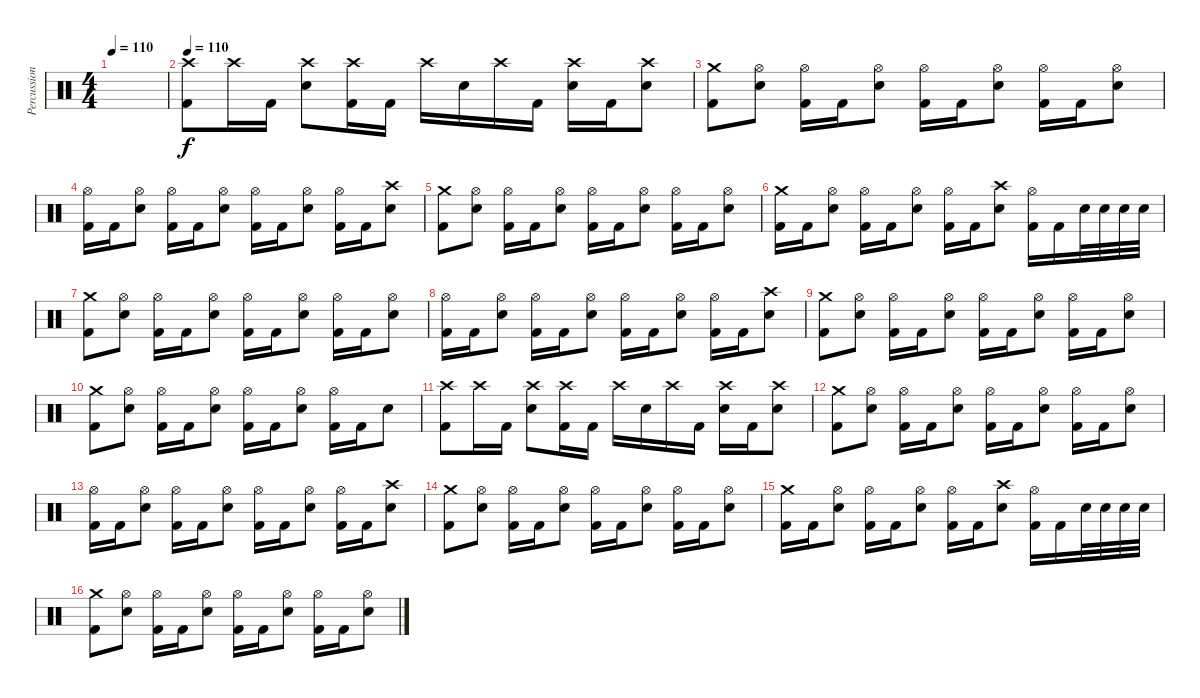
\track ("Percussion" "Percussion") {instrument percussion}
\staff {score}
\articulation defaults
\ts (4 4)
\tempo 110
\tempo 40
\tempo 110
\clef neutral
\ks c
|
\tempo 110
("Crash high (hit)" "Kick (hit) 2").8 "Crash high (hit)".16 "Kick (hit) 2".16 ("Crash high (hit)" "Snare (hit) 2").8 ("Crash high (hit)" "Kick (hit) 2").16 "Kick (hit) 2".16 "Crash high (hit)".16 "Snare (hit) 2".16 "Crash high (hit)".16 "Kick (hit) 2".16 ("Crash high (hit)" "Snare (hit) 2").16 "Kick (hit) 2".16 ("Crash high (hit)" "Snare (hit) 2").8 |
("Crash medium (hit)" "Kick (hit) 2").8 ("Hi-Hat (open)" "Snare (hit) 2").8 ("Hi-Hat (open)" "Kick (hit) 2").16 "Kick (hit) 2".16 ("Hi-Hat (open)" "Snare (hit) 2").8 ("Hi-Hat (open)" "Kick (hit) 2").16 "Kick (hit) 2".16 ("Hi-Hat (open)" "Snare (hit) 2").8 ("Hi-Hat (open)" "Kick (hit) 2").16 "Kick (hit) 2".16 ("Hi-Hat (open)" "Snare (hit) 2").8 |
("Hi-Hat (open)" "Kick (hit) 2").16 "Kick (hit) 2".16 ("Hi-Hat (open)" "Snare (hit) 2").8 ("Hi-Hat (open)" "Kick (hit) 2").16 "Kick (hit) 2".16 ("Hi-Hat (open)" "Snare (hit) 2").8 ("Hi-Hat (open)" "Kick (hit) 2").16 "Kick (hit) 2".16 ("Hi-Hat (open)" "Snare (hit) 2").8 ("Hi-Hat (open)" "Kick (hit) 2").16 "Kick (hit) 2".16 ("Crash high (hit)" "Snare (hit) 2").8 |
("Crash medium (hit)" "Kick (hit) 2").8 ("Hi-Hat (open)" "Snare (hit) 2").8 ("Hi-Hat (open)" "Kick (hit) 2").16 "Kick (hit) 2".16 ("Hi-Hat (open)" "Snare (hit) 2").8 ("Hi-Hat (open)" "Kick (hit) 2").16 "Kick (hit) 2".16 ("Hi-Hat (open)" "Snare (hit) 2").8 ("Hi-Hat (open)" "Kick (hit) 2").16 "Kick (hit) 2".16 ("Hi-Hat (open)" "Snare (hit) 2").8 |
("Crash medium (hit)" "Kick (hit) 2").16 "Kick (hit) 2".16 ("Hi-Hat (open)" "Snare (hit) 2").8 ("Hi-Hat (open)" "Kick (hit) 2").16 "Kick (hit) 2".16 ("Hi-Hat (open)" "Snare (hit) 2").8 ("Hi-Hat (open)" "Kick (hit) 2").16 "Kick (hit) 2".16 ("Crash high (hit)" "Snare (hit) 2").8 ("Hi-Hat (open)" "Kick (hit) 2").16 "Kick (hit) 2".16 "Snare (hit) 2".32 "Snare (hit) 2".32 "Snare (hit) 2".32 "Snare (hit) 2".32 |
("Crash medium (hit)" "Kick (hit) 2").8 ("Hi-Hat (open)" "Snare (hit) 2").8 ("Hi-Hat (open)" "Kick (hit) 2").16 "Kick (hit) 2".16 ("Hi-Hat (open)" "Snare (hit) 2").8 ("Hi-Hat (open)" "Kick (hit) 2").16 "Kick (hit) 2".16 ("Hi-Hat (open)" "Snare (hit) 2").8 ("Hi-Hat (open)" "Kick (hit) 2").16 "Kick (hit) 2".16 ("Hi-Hat (open)" "Snare (hit) 2").8 |
("Hi-Hat (open)" "Kick (hit) 2").16 "Kick (hit) 2".16 ("Hi-Hat (open)" "Snare (hit) 2").8 ("Hi-Hat (open)" "Kick (hit) 2").16 "Kick (hit) 2".16 ("Hi-Hat (open)" "Snare (hit) 2").8 ("Hi-Hat (open)" "Kick (hit) 2").16 "Kick (hit) 2".16 ("Hi-Hat (open)" "Snare (hit) 2").8 ("Hi-Hat (open)" "Kick (hit) 2").16 "Kick (hit) 2".16 ("Crash high (hit)" "Snare (hit) 2").8 |
("Crash medium (hit)" "Kick (hit) 2").8 ("Hi-Hat (open)" "Snare (hit) 2").8 ("Hi-Hat (open)" "Kick (hit) 2").16 "Kick (hit) 2".16 ("Hi-Hat (open)" "Snare (hit) 2").8 ("Hi-Hat (open)" "Kick (hit) 2").16 "Kick (hit) 2".16 ("Hi-Hat (open)" "Snare (hit) 2").8 ("Hi-Hat (open)" "Kick (hit) 2").16 "Kick (hit) 2".16 ("Hi-Hat (open)" "Snare (hit) 2").8 |
("Crash medium (hit)" "Kick (hit) 2").8 ("Hi-Hat (open)" "Snare (hit) 2").8 ("Hi-Hat (open)" "Kick (hit) 2").16 "Kick (hit) 2".16 ("Hi-Hat (open)" "Snare (hit) 2").8 ("Hi-Hat (open)" "Kick (hit) 2").16 "Kick (hit) 2".16 ("Hi-Hat (open)" "Snare (hit) 2").8 ("Hi-Hat (open)" "Kick (hit) 2").16 "Kick (hit) 2".16 "Snare (hit) 2".8 |
("Crash high (hit)" "Kick (hit) 2").8 "Crash high (hit)".16 "Kick (hit) 2".16 ("Crash high (hit)" "Snare (hit) 2").8 ("Crash high (hit)" "Kick (hit) 2").16 "Kick (hit) 2".16 "Crash high (hit)".16 "Snare (hit) 2".16 "Crash high (hit)".16 "Kick (hit) 2".16 ("Crash high (hit)" "Snare (hit) 2").16 "Kick (hit) 2".16 ("Crash high (hit)" "Snare (hit) 2").8 |
("Crash medium (hit)" "Kick (hit) 2").8 ("Hi-Hat (open)" "Snare (hit) 2").8 ("Hi-Hat (open)" "Kick (hit) 2").16 "Kick (hit) 2".16 ("Hi-Hat (open)" "Snare (hit) 2").8 ("Hi-Hat (open)" "Kick (hit) 2").16 "Kick (hit) 2".16 ("Hi-Hat (open)" "Snare (hit) 2").8 ("Hi-Hat (open)" "Kick (hit) 2").16 "Kick (hit) 2".16 ("Hi-Hat (open)" "Snare (hit) 2").8 |
("Hi-Hat (open)" "Kick (hit) 2").16 "Kick (hit) 2".16 ("Hi-Hat (open)" "Snare (hit) 2").8 ("Hi-Hat (open)" "Kick (hit) 2").16 "Kick (hit) 2".16 ("Hi-Hat (open)" "Snare (hit) 2").8 ("Hi-Hat (open)" "Kick (hit) 2").16 "Kick (hit) 2".16 ("Hi-Hat (open)" "Snare (hit) 2").8 ("Hi-Hat (open)" "Kick (hit) 2").16 "Kick (hit) 2".16 ("Crash high (hit)" "Snare (hit) 2").8 |
("Crash medium (hit)" "Kick (hit) 2").8 ("Hi-Hat (open)" "Snare (hit) 2").8 ("Hi-Hat (open)" "Kick (hit) 2").16 "Kick (hit) 2".16 ("Hi-Hat (open)" "Snare (hit) 2").8 ("Hi-Hat (open)" "Kick (hit) 2").16 "Kick (hit) 2".16 ("Hi-Hat (open)" "Snare (hit) 2").8 ("Hi-Hat (open)" "Kick (hit) 2").16 "Kick (hit) 2".16 ("Hi-Hat (open)" "Snare (hit) 2").8 |
("Crash medium (hit)" "Kick (hit) 2").16 "Kick (hit) 2".16 ("Hi-Hat (open)" "Snare (hit) 2").8 ("Hi-Hat (open)" "Kick (hit) 2").16 "Kick (hit) 2".16 ("Hi-Hat (open)" "Snare (hit) 2").8 ("Hi-Hat (open)" "Kick (hit) 2").16 "Kick (hit) 2".16 ("Crash high (hit)" "Snare (hit) 2").8 ("Hi-Hat (open)" "Kick (hit) 2").16 "Kick (hit) 2".16 "Snare (hit) 2".32 "Snare (hit) 2".32 "Snare (hit) 2".32 "Snare (hit) 2".32 |
("Crash medium (hit)" "Kick (hit) 2").8 ("Hi-Hat (open)" "Snare (hit) 2").8 ("Hi-Hat (open)" "Kick (hit) 2").16 "Kick (hit) 2".16 ("Hi-Hat (open)" "Snare (hit) 2").8 ("Hi-Hat (open)" "Kick (hit) 2").16 "Kick (hit) 2".16 ("Hi-Hat (open)" "Snare (hit) 2").8 ("Hi-Hat (open)" "Kick (hit) 2").16 "Kick (hit) 2".16 ("Hi-Hat (open)" "Snare (hit) 2").8
